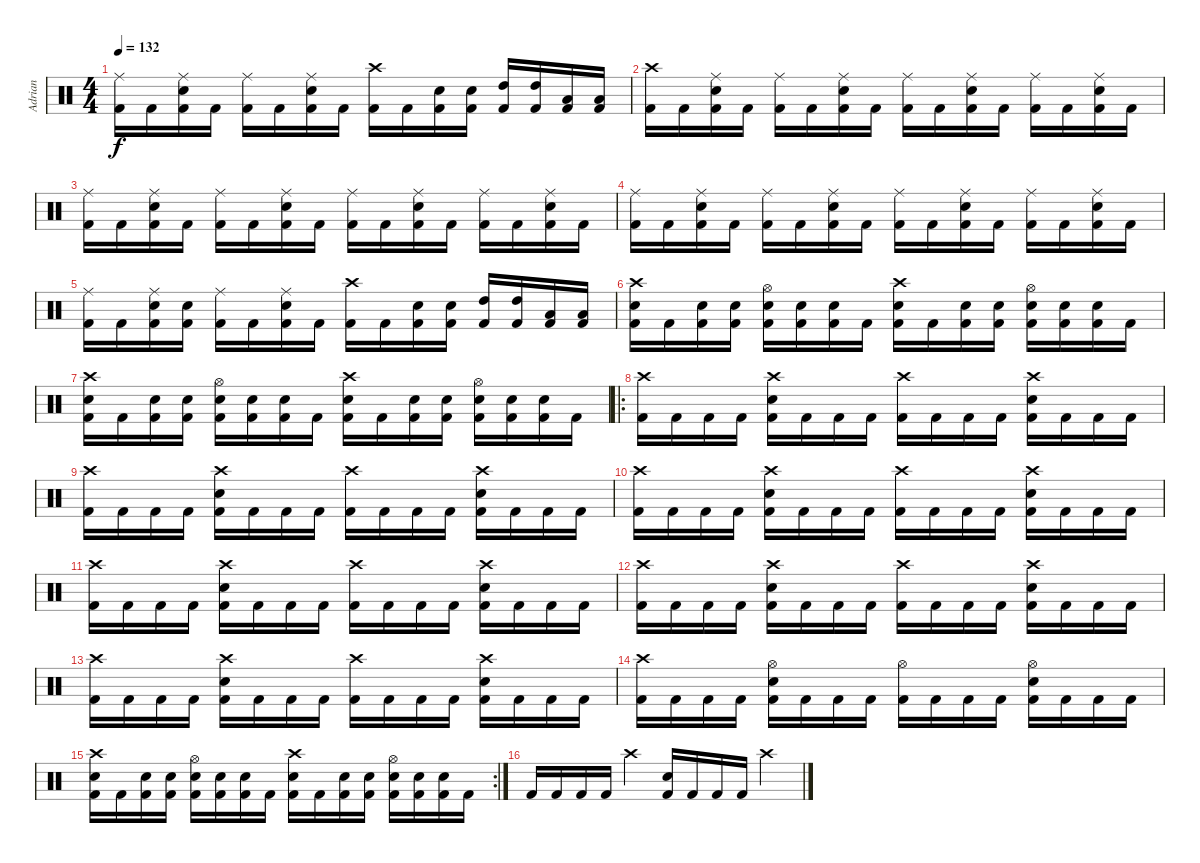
\track ("Adrian" "Adrian") {instrument percussion}
\staff {score}
\articulation defaults
\ts (4 4)
\tempo 132
\clef neutral
\ks c
("Kick (hit) 2" "Ride (middle)").16{dy f} "Kick (hit) 2".16 ("Kick (hit) 2" "Snare (hit) 2" "Ride (middle)").16 "Kick (hit) 2".16 ("Kick (hit) 2" "Ride (middle)").16 "Kick (hit) 2".16 ("Kick (hit) 2" "Snare (hit) 2" "Ride (middle)").16 "Kick (hit) 2".16 ("Kick (hit) 2" "Crash high (hit)").16 "Kick (hit) 2".16 ("Kick (hit) 2" "Snare (hit) 2").16 ("Kick (hit) 2" "Snare (hit) 2").16 ("Kick (hit) 2" "High Tom (hit)").16 ("Kick (hit) 2" "High Tom (hit)").16 ("Kick (hit) 2" "Low Tom (hit)").16 ("Kick (hit) 2" "Low Tom (hit)").16 |
("Kick (hit) 2" "Crash high (hit)").16 "Kick (hit) 2".16 ("Kick (hit) 2" "Snare (hit) 2" "Ride (middle)").16 "Kick (hit) 2".16 ("Kick (hit) 2" "Ride (middle)").16 "Kick (hit) 2".16 ("Kick (hit) 2" "Snare (hit) 2" "Ride (middle)").16 "Kick (hit) 2".16 ("Kick (hit) 2" "Ride (middle)").16 "Kick (hit) 2".16 ("Kick (hit) 2" "Snare (hit) 2" "Ride (middle)").16 "Kick (hit) 2".16 ("Kick (hit) 2" "Ride (middle)").16 "Kick (hit) 2".16 ("Kick (hit) 2" "Snare (hit) 2" "Ride (middle)").16 "Kick (hit) 2".16 |
("Kick (hit) 2" "Ride (middle)").16 "Kick (hit) 2".16 ("Kick (hit) 2" "Snare (hit) 2" "Ride (middle)").16 "Kick (hit) 2".16 ("Kick (hit) 2" "Ride (middle)").16 "Kick (hit) 2".16 ("Kick (hit) 2" "Snare (hit) 2" "Ride (middle)").16 "Kick (hit) 2".16 ("Kick (hit) 2" "Ride (middle)").16 "Kick (hit) 2".16 ("Kick (hit) 2" "Snare (hit) 2" "Ride (middle)").16 "Kick (hit) 2".16 ("Kick (hit) 2" "Ride (middle)").16 "Kick (hit) 2".16 ("Kick (hit) 2" "Snare (hit) 2" "Ride (middle)").16 "Kick (hit) 2".16 |
("Kick (hit) 2" "Ride (middle)").16 "Kick (hit) 2".16 ("Kick (hit) 2" "Snare (hit) 2" "Ride (middle)").16 "Kick (hit) 2".16 ("Kick (hit) 2" "Ride (middle)").16 "Kick (hit) 2".16 ("Kick (hit) 2" "Snare (hit) 2" "Ride (middle)").16 "Kick (hit) 2".16 ("Kick (hit) 2" "Ride (middle)").16 "Kick (hit) 2".16 ("Kick (hit) 2" "Snare (hit) 2" "Ride (middle)").16 "Kick (hit) 2".16 ("Kick (hit) 2" "Ride (middle)").16 "Kick (hit) 2".16 ("Kick (hit) 2" "Snare (hit) 2" "Ride (middle)").16 "Kick (hit) 2".16 |
("Kick (hit) 2" "Ride (middle)").16 "Kick (hit) 2".16 ("Kick (hit) 2" "Snare (hit) 2" "Ride (middle)").16 ("Kick (hit) 2" "Snare (hit) 2").16 ("Kick (hit) 2" "Ride (middle)").16 "Kick (hit) 2".16 ("Kick (hit) 2" "Snare (hit) 2" "Ride (middle)").16 "Kick (hit) 2".16 ("Kick (hit) 2" "Crash high (hit)").16 "Kick (hit) 2".16 ("Kick (hit) 2" "Snare (hit) 2").16 ("Kick (hit) 2" "Snare (hit) 2").16 ("Kick (hit) 2" "High Tom (hit)").16 ("Kick (hit) 2" "High Tom (hit)").16 ("Kick (hit) 2" "Low Tom (hit)").16 ("Kick (hit) 2" "Low Tom (hit)").16 |
("Kick (hit) 2" "Snare (hit) 2" "Crash high (hit)").16 "Kick (hit) 2".16 ("Kick (hit) 2" "Snare (hit) 2").16 ("Kick (hit) 2" "Snare (hit) 2").16 ("Kick (hit) 2" "Snare (hit) 2" "Hi-Hat (open)").16 ("Kick (hit) 2" "Snare (hit) 2").16 ("Kick (hit) 2" "Snare (hit) 2").16 "Kick (hit) 2".16 ("Kick (hit) 2" "Snare (hit) 2" "Crash high (hit)").16 "Kick (hit) 2".16 ("Kick (hit) 2" "Snare (hit) 2").16 ("Kick (hit) 2" "Snare (hit) 2").16 ("Kick (hit) 2" "Snare (hit) 2" "Hi-Hat (open)").16 ("Kick (hit) 2" "Snare (hit) 2").16 ("Kick (hit) 2" "Snare (hit) 2").16 "Kick (hit) 2".16 |
("Kick (hit) 2" "Snare (hit) 2" "Crash high (hit)").16 "Kick (hit) 2".16 ("Kick (hit) 2" "Snare (hit) 2").16 ("Kick (hit) 2" "Snare (hit) 2").16 ("Kick (hit) 2" "Snare (hit) 2" "Hi-Hat (open)").16 ("Kick (hit) 2" "Snare (hit) 2").16 ("Kick (hit) 2" "Snare (hit) 2").16 "Kick (hit) 2".16 ("Kick (hit) 2" "Snare (hit) 2" "Crash high (hit)").16 "Kick (hit) 2".16 ("Kick (hit) 2" "Snare (hit) 2").16 ("Kick (hit) 2" "Snare (hit) 2").16 ("Kick (hit) 2" "Snare (hit) 2" "Hi-Hat (open)").16 ("Kick (hit) 2" "Snare (hit) 2").16 ("Kick (hit) 2" "Snare (hit) 2").16 "Kick (hit) 2".16 |
\ro
("Kick (hit) 2" "Crash high (hit)").16 "Kick (hit) 2".16 "Kick (hit) 2".16 "Kick (hit) 2".16 ("Kick (hit) 2" "Snare (hit) 2" "Crash high (hit)").16 "Kick (hit) 2".16 "Kick (hit) 2".16 "Kick (hit) 2".16 ("Kick (hit) 2" "Crash high (hit)").16 "Kick (hit) 2".16 "Kick (hit) 2".16 "Kick (hit) 2".16 ("Kick (hit) 2" "Snare (hit) 2" "Crash high (hit)").16 "Kick (hit) 2".16 "Kick (hit) 2".16 "Kick (hit) 2".16 |
("Kick (hit) 2" "Crash high (hit)").16 "Kick (hit) 2".16 "Kick (hit) 2".16 "Kick (hit) 2".16 ("Kick (hit) 2" "Snare (hit) 2" "Crash high (hit)").16 "Kick (hit) 2".16 "Kick (hit) 2".16 "Kick (hit) 2".16 ("Kick (hit) 2" "Crash high (hit)").16 "Kick (hit) 2".16 "Kick (hit) 2".16 "Kick (hit) 2".16 ("Kick (hit) 2" "Snare (hit) 2" "Crash high (hit)").16 "Kick (hit) 2".16 "Kick (hit) 2".16 "Kick (hit) 2".16 |
("Kick (hit) 2" "Crash high (hit)").16 "Kick (hit) 2".16 "Kick (hit) 2".16 "Kick (hit) 2".16 ("Kick (hit) 2" "Snare (hit) 2" "Crash high (hit)").16 "Kick (hit) 2".16 "Kick (hit) 2".16 "Kick (hit) 2".16 ("Kick (hit) 2" "Crash high (hit)").16 "Kick (hit) 2".16 "Kick (hit) 2".16 "Kick (hit) 2".16 ("Kick (hit) 2" "Snare (hit) 2" "Crash high (hit)").16 "Kick (hit) 2".16 "Kick (hit) 2".16 "Kick (hit) 2".16 |
("Kick (hit) 2" "Crash high (hit)").16 "Kick (hit) 2".16 "Kick (hit) 2".16 "Kick (hit) 2".16 ("Kick (hit) 2" "Snare (hit) 2" "Crash high (hit)").16 "Kick (hit) 2".16 "Kick (hit) 2".16 "Kick (hit) 2".16 ("Kick (hit) 2" "Crash high (hit)").16 "Kick (hit) 2".16 "Kick (hit) 2".16 "Kick (hit) 2".16 ("Kick (hit) 2" "Snare (hit) 2" "Crash high (hit)").16 "Kick (hit) 2".16 "Kick (hit) 2".16 "Kick (hit) 2".16 |
("Kick (hit) 2" "Crash high (hit)").16 "Kick (hit) 2".16 "Kick (hit) 2".16 "Kick (hit) 2".16 ("Kick (hit) 2" "Snare (hit) 2" "Crash high (hit)").16 "Kick (hit) 2".16 "Kick (hit) 2".16 "Kick (hit) 2".16 ("Kick (hit) 2" "Crash high (hit)").16 "Kick (hit) 2".16 "Kick (hit) 2".16 "Kick (hit) 2".16 ("Kick (hit) 2" "Snare (hit) 2" "Crash high (hit)").16 "Kick (hit) 2".16 "Kick (hit) 2".16 "Kick (hit) 2".16 |
("Kick (hit) 2" "Crash high (hit)").16 "Kick (hit) 2".16 "Kick (hit) 2".16 "Kick (hit) 2".16 ("Kick (hit) 2" "Snare (hit) 2" "Crash high (hit)").16 "Kick (hit) 2".16 "Kick (hit) 2".16 "Kick (hit) 2".16 ("Kick (hit) 2" "Crash high (hit)").16 "Kick (hit) 2".16 "Kick (hit) 2".16 "Kick (hit) 2".16 ("Kick (hit) 2" "Snare (hit) 2" "Crash high (hit)").16 "Kick (hit) 2".16 "Kick (hit) 2".16 "Kick (hit) 2".16 |
("Kick (hit) 2" "Crash high (hit)").16 "Kick (hit) 2".16 "Kick (hit) 2".16 "Kick (hit) 2".16 ("Kick (hit) 2" "Snare (hit) 2" "Hi-Hat (open)").16 "Kick (hit) 2".16 "Kick (hit) 2".16 "Kick (hit) 2".16 ("Kick (hit) 2" "Hi-Hat (open)").16 "Kick (hit) 2".16 "Kick (hit) 2".16 "Kick (hit) 2".16 ("Kick (hit) 2" "Snare (hit) 2" "Hi-Hat (open)").16 "Kick (hit) 2".16 "Kick (hit) 2".16 "Kick (hit) 2".16 |
\rc 2
("Kick (hit) 2" "Snare (hit) 2" "Crash high (hit)").16 "Kick (hit) 2".16 ("Kick (hit) 2" "Snare (hit) 2").16 ("Kick (hit) 2" "Snare (hit) 2").16 ("Kick (hit) 2" "Snare (hit) 2" "Hi-Hat (open)").16 ("Kick (hit) 2" "Snare (hit) 2").16 ("Kick (hit) 2" "Snare (hit) 2").16 "Kick (hit) 2".16 ("Kick (hit) 2" "Snare (hit) 2" "Crash high (hit)").16 "Kick (hit) 2".16 ("Kick (hit) 2" "Snare (hit) 2").16 ("Kick (hit) 2" "Snare (hit) 2").16 ("Kick (hit) 2" "Snare (hit) 2" "Hi-Hat (open)").16 ("Kick (hit) 2" "Snare (hit) 2").16 ("Kick (hit) 2" "Snare (hit) 2").16 "Kick (hit) 2".16 |
"Kick (hit) 2".16 "Kick (hit) 2".16 "Kick (hit) 2".16 "Kick (hit) 2".16 "Crash high (hit)".4 ("Kick (hit) 2" "Snare (hit) 2").16 "Kick (hit) 2".16 "Kick (hit) 2".16 "Kick (hit) 2".16 "Crash high (hit)".4
